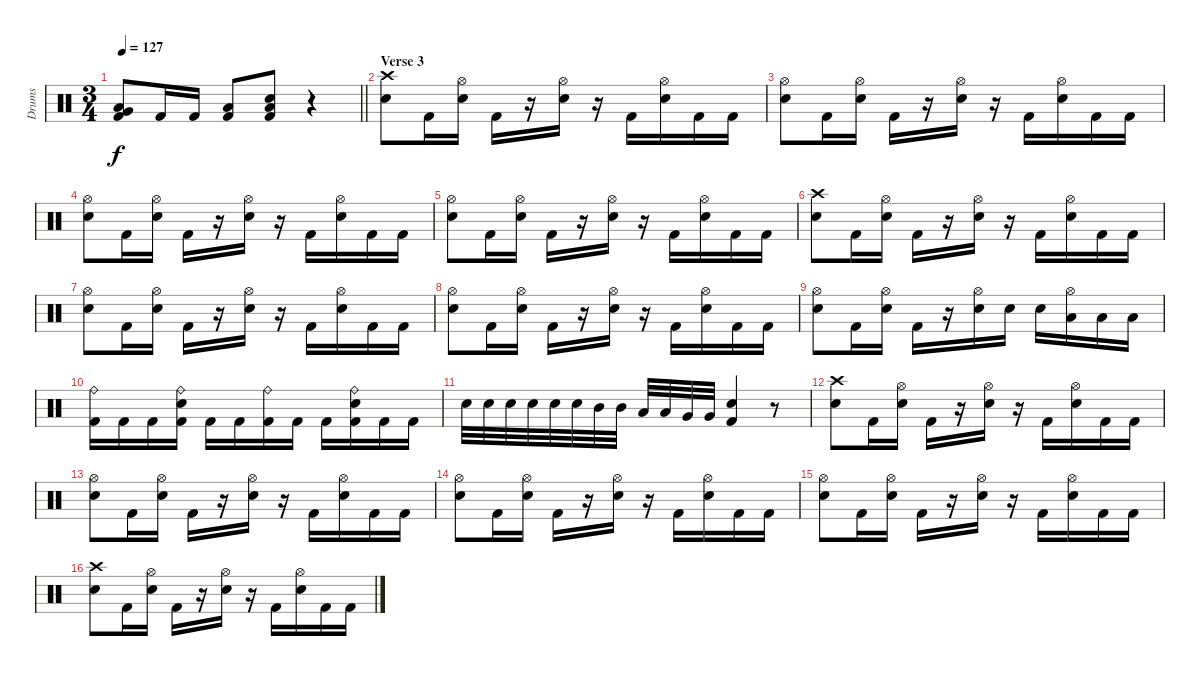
\track ("Drums" "Drums") {instrument percussion}
\staff {score}
\articulation defaults
\ts (3 4)
\tempo 127
\clef neutral
\barLineRight lightlight
\ks c
("Low Floor Tom (hit)" "Very Low Tom (hit)" "Kick (hit) 2").8{dy f} "Kick (hit) 2".16 "Kick (hit) 2".16 ("Low Floor Tom (hit)" "Kick (hit) 2").8 ("Low Floor Tom (hit)" "Electric Snare (hit)" "Kick (hit) 2").8 r.4 |
\section ("" "Verse 3")
("Crash high (hit)" "Electric Snare (hit)").8 "Kick (hit) 2".16 ("Hi-Hat (open)" "Electric Snare (hit)").16 "Kick (hit) 2".16 r.16 ("Hi-Hat (open)" "Electric Snare (hit)").16 r.16 "Kick (hit) 2".16 ("Hi-Hat (open)" "Electric Snare (hit)").16 "Kick (hit) 2".16 "Kick (hit) 2".16 |
("Hi-Hat (open)" "Electric Snare (hit)").8 "Kick (hit) 2".16 ("Hi-Hat (open)" "Electric Snare (hit)").16 "Kick (hit) 2".16 r.16 ("Hi-Hat (open)" "Electric Snare (hit)").16 r.16 "Kick (hit) 2".16 ("Hi-Hat (open)" "Electric Snare (hit)").16 "Kick (hit) 2".16 "Kick (hit) 2".16 |
("Hi-Hat (open)" "Electric Snare (hit)").8 "Kick (hit) 2".16 ("Hi-Hat (open)" "Electric Snare (hit)").16 "Kick (hit) 2".16 r.16 ("Hi-Hat (open)" "Electric Snare (hit)").16 r.16 "Kick (hit) 2".16 ("Hi-Hat (open)" "Electric Snare (hit)").16 "Kick (hit) 2".16 "Kick (hit) 2".16 |
("Hi-Hat (open)" "Electric Snare (hit)").8 "Kick (hit) 2".16 ("Hi-Hat (open)" "Electric Snare (hit)").16 "Kick (hit) 2".16 r.16 ("Hi-Hat (open)" "Electric Snare (hit)").16 r.16 "Kick (hit) 2".16 ("Hi-Hat (open)" "Electric Snare (hit)").16 "Kick (hit) 2".16 "Kick (hit) 2".16 |
("Crash high (hit)" "Electric Snare (hit)").8 "Kick (hit) 2".16 ("Hi-Hat (open)" "Electric Snare (hit)").16 "Kick (hit) 2".16 r.16 ("Hi-Hat (open)" "Electric Snare (hit)").16 r.16 "Kick (hit) 2".16 ("Hi-Hat (open)" "Electric Snare (hit)").16 "Kick (hit) 2".16 "Kick (hit) 2".16 |
("Hi-Hat (open)" "Electric Snare (hit)").8 "Kick (hit) 2".16 ("Hi-Hat (open)" "Electric Snare (hit)").16 "Kick (hit) 2".16 r.16 ("Hi-Hat (open)" "Electric Snare (hit)").16 r.16 "Kick (hit) 2".16 ("Hi-Hat (open)" "Electric Snare (hit)").16 "Kick (hit) 2".16 "Kick (hit) 2".16 |
("Hi-Hat (open)" "Electric Snare (hit)").8 "Kick (hit) 2".16 ("Hi-Hat (open)" "Electric Snare (hit)").16 "Kick (hit) 2".16 r.16 ("Hi-Hat (open)" "Electric Snare (hit)").16 r.16 "Kick (hit) 2".16 ("Hi-Hat (open)" "Electric Snare (hit)").16 "Kick (hit) 2".16 "Kick (hit) 2".16 |
("Hi-Hat (open)" "Electric Snare (hit)").8 "Kick (hit) 2".16 ("Hi-Hat (open)" "Electric Snare (hit)").16 "Kick (hit) 2".16 r.16 ("Hi-Hat (open)" "Electric Snare (hit)").16 "Electric Snare (hit)".16 "Electric Snare (hit)".16 ("Hi-Hat (open)" "Low Tom (hit)").16 "Low Tom (hit)".16 "Low Tom (hit)".16 |
("Ride (bell)" "Kick (hit) 2").16 "Kick (hit) 2".16 "Kick (hit) 2".16 ("Ride (bell)" "Electric Snare (hit)" "Kick (hit) 2").16 "Kick (hit) 2".16 "Kick (hit) 2".16 ("Ride (bell)" "Kick (hit) 2").16 "Kick (hit) 2".16 "Kick (hit) 2".16 ("Ride (bell)" "Electric Snare (hit)" "Kick (hit) 2").16 "Kick (hit) 2".16 "Kick (hit) 2".16 |
"Electric Snare (hit)".32 "Electric Snare (hit)".32 "Electric Snare (hit)".32 "Electric Snare (hit)".32 "Electric Snare (hit)".32 "Electric Snare (hit)".32 "Mid Tom (hit)".32 "Mid Tom (hit)".32 "Low Tom (hit)".32 "Low Tom (hit)".32 "Very Low Tom (hit)".32 "Very Low Tom (hit)".32 ("Electric Snare (hit)" "Kick (hit) 2").4 r.8 |
("Crash high (hit)" "Electric Snare (hit)").8 "Kick (hit) 2".16 ("Hi-Hat (open)" "Electric Snare (hit)").16 "Kick (hit) 2".16 r.16 ("Hi-Hat (open)" "Electric Snare (hit)").16 r.16 "Kick (hit) 2".16 ("Hi-Hat (open)" "Electric Snare (hit)").16 "Kick (hit) 2".16 "Kick (hit) 2".16 |
("Hi-Hat (open)" "Electric Snare (hit)").8 "Kick (hit) 2".16 ("Hi-Hat (open)" "Electric Snare (hit)").16 "Kick (hit) 2".16 r.16 ("Hi-Hat (open)" "Electric Snare (hit)").16 r.16 "Kick (hit) 2".16 ("Hi-Hat (open)" "Electric Snare (hit)").16 "Kick (hit) 2".16 "Kick (hit) 2".16 |
("Hi-Hat (open)" "Electric Snare (hit)").8 "Kick (hit) 2".16 ("Hi-Hat (open)" "Electric Snare (hit)").16 "Kick (hit) 2".16 r.16 ("Hi-Hat (open)" "Electric Snare (hit)").16 r.16 "Kick (hit) 2".16 ("Hi-Hat (open)" "Electric Snare (hit)").16 "Kick (hit) 2".16 "Kick (hit) 2".16 |
("Hi-Hat (open)" "Electric Snare (hit)").8 "Kick (hit) 2".16 ("Hi-Hat (open)" "Electric Snare (hit)").16 "Kick (hit) 2".16 r.16 ("Hi-Hat (open)" "Electric Snare (hit)").16 r.16 "Kick (hit) 2".16 ("Hi-Hat (open)" "Electric Snare (hit)").16 "Kick (hit) 2".16 "Kick (hit) 2".16 |
("Crash high (hit)" "Electric Snare (hit)").8 "Kick (hit) 2".16 ("Hi-Hat (open)" "Electric Snare (hit)").16 "Kick (hit) 2".16 r.16 ("Hi-Hat (open)" "Electric Snare (hit)").16 r.16 "Kick (hit) 2".16 ("Hi-Hat (open)" "Electric Snare (hit)").16 "Kick (hit) 2".16 "Kick (hit) 2".16
